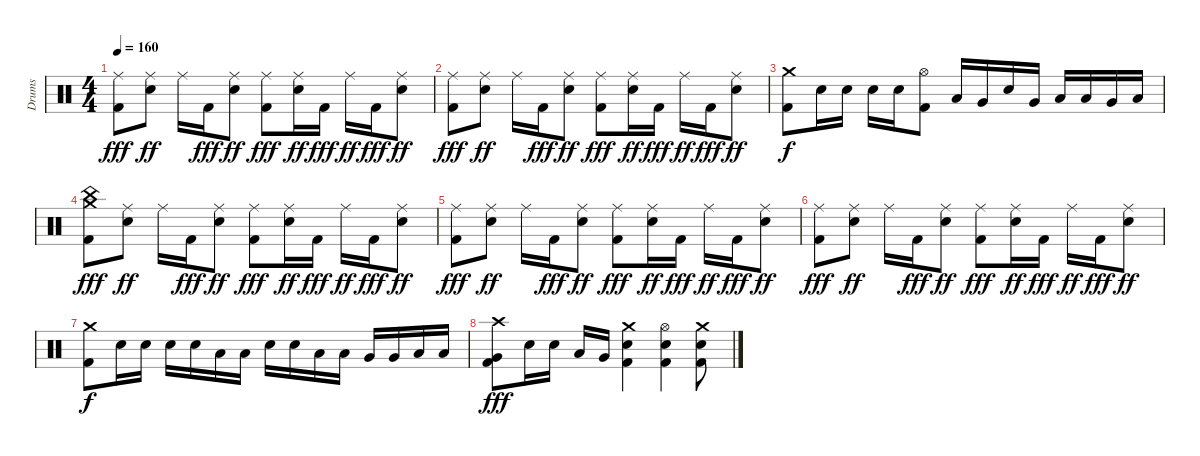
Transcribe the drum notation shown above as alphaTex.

\track ("Drums" "Drums") {instrument percussion}
\staff {score}
\articulation defaults
\ts (4 4)
\tempo 160
\clef neutral
\ks c
("Ride (middle)" "Kick (hit) 2").8{dy fff} ("Ride (middle)" "Electric Snare (hit)").8{dy ff} "Ride (middle)".16 "Kick (hit) 2".16{dy fff} ("Ride (middle)" "Electric Snare (hit)").8{dy ff} ("Ride (middle)" "Kick (hit) 2").8{dy fff} ("Ride (middle)" "Electric Snare (hit)").16{dy ff} "Kick (hit) 2".16{dy fff} "Ride (middle)".16{dy ff} "Kick (hit) 2".16{dy fff} ("Ride (middle)" "Electric Snare (hit)").8{dy ff} |
("Ride (middle)" "Kick (hit) 2").8{dy fff} ("Ride (middle)" "Electric Snare (hit)").8{dy ff} "Ride (middle)".16 "Kick (hit) 2".16{dy fff} ("Ride (middle)" "Electric Snare (hit)").8{dy ff} ("Ride (middle)" "Kick (hit) 2").8{dy fff} ("Ride (middle)" "Electric Snare (hit)").16{dy ff} "Kick (hit) 2".16{dy fff} "Ride (middle)".16{dy ff} "Kick (hit) 2".16{dy fff} ("Ride (middle)" "Electric Snare (hit)").8{dy ff} |
("Crash medium (hit)" "Kick (hit) 2").8{dy f} "Electric Snare (hit)".16 "Electric Snare (hit)".16 "Electric Snare (hit)".16 "Electric Snare (hit)".16 ("Hi-Hat (open)" "Kick (hit) 2").8 "Low Tom (hit)".16 "Very Low Tom (hit)".16 "Electric Snare (hit)".16 "Very Low Tom (hit)".16 "Low Tom (hit)".16 "Low Tom (hit)".16 "Very Low Tom (hit)".16 "Low Floor Tom (hit)".16 |
("China (hit)" "Crash medium (hit)" "Kick (hit) 2").8{dy fff} ("Ride (middle)" "Electric Snare (hit)").8{dy ff} "Ride (middle)".16 "Kick (hit) 2".16{dy fff} ("Ride (middle)" "Electric Snare (hit)").8{dy ff} ("Ride (middle)" "Kick (hit) 2").8{dy fff} ("Ride (middle)" "Electric Snare (hit)").16{dy ff} "Kick (hit) 2".16{dy fff} "Ride (middle)".16{dy ff} "Kick (hit) 2".16{dy fff} ("Ride (middle)" "Electric Snare (hit)").8{dy ff} |
("Ride (middle)" "Kick (hit) 2").8{dy fff} ("Ride (middle)" "Electric Snare (hit)").8{dy ff} "Ride (middle)".16 "Kick (hit) 2".16{dy fff} ("Ride (middle)" "Electric Snare (hit)").8{dy ff} ("Ride (middle)" "Kick (hit) 2").8{dy fff} ("Ride (middle)" "Electric Snare (hit)").16{dy ff} "Kick (hit) 2".16{dy fff} "Ride (middle)".16{dy ff} "Kick (hit) 2".16{dy fff} ("Ride (middle)" "Electric Snare (hit)").8{dy ff} |
("Ride (middle)" "Kick (hit) 2").8{dy fff} ("Ride (middle)" "Electric Snare (hit)").8{dy ff} "Ride (middle)".16 "Kick (hit) 2".16{dy fff} ("Ride (middle)" "Electric Snare (hit)").8{dy ff} ("Ride (middle)" "Kick (hit) 2").8{dy fff} ("Ride (middle)" "Electric Snare (hit)").16{dy ff} "Kick (hit) 2".16{dy fff} "Ride (middle)".16{dy ff} "Kick (hit) 2".16{dy fff} ("Ride (middle)" "Electric Snare (hit)").8{dy ff} |
("Crash medium (hit)" "Kick (hit) 2").8{dy f} "Electric Snare (hit)".16 "Electric Snare (hit)".16 "Electric Snare (hit)".16 "Electric Snare (hit)".16 "Low Tom (hit)".16 "Low Tom (hit)".16 "Electric Snare (hit)".16 "Electric Snare (hit)".16 "Low Tom (hit)".16 "Low Tom (hit)".16 "Very Low Tom (hit)".16 "Very Low Tom (hit)".16 "Low Floor Tom (hit)".16 "Low Floor Tom (hit)".16 |
("Crash high (hit)" "Very Low Tom (hit)" "Kick (hit) 2").8{dy fff} "Electric Snare (hit)".16 "Electric Snare (hit)".16 "Low Tom (hit)".16 "Very Low Tom (hit)".16 ("Crash medium (hit)" "Electric Snare (hit)" "Kick (hit) 2").4 ("Hi-Hat (open)" "Electric Snare (hit)" "Kick (hit) 2").4 ("Crash medium (hit)" "Electric Snare (hit)" "Kick (hit) 2").8
